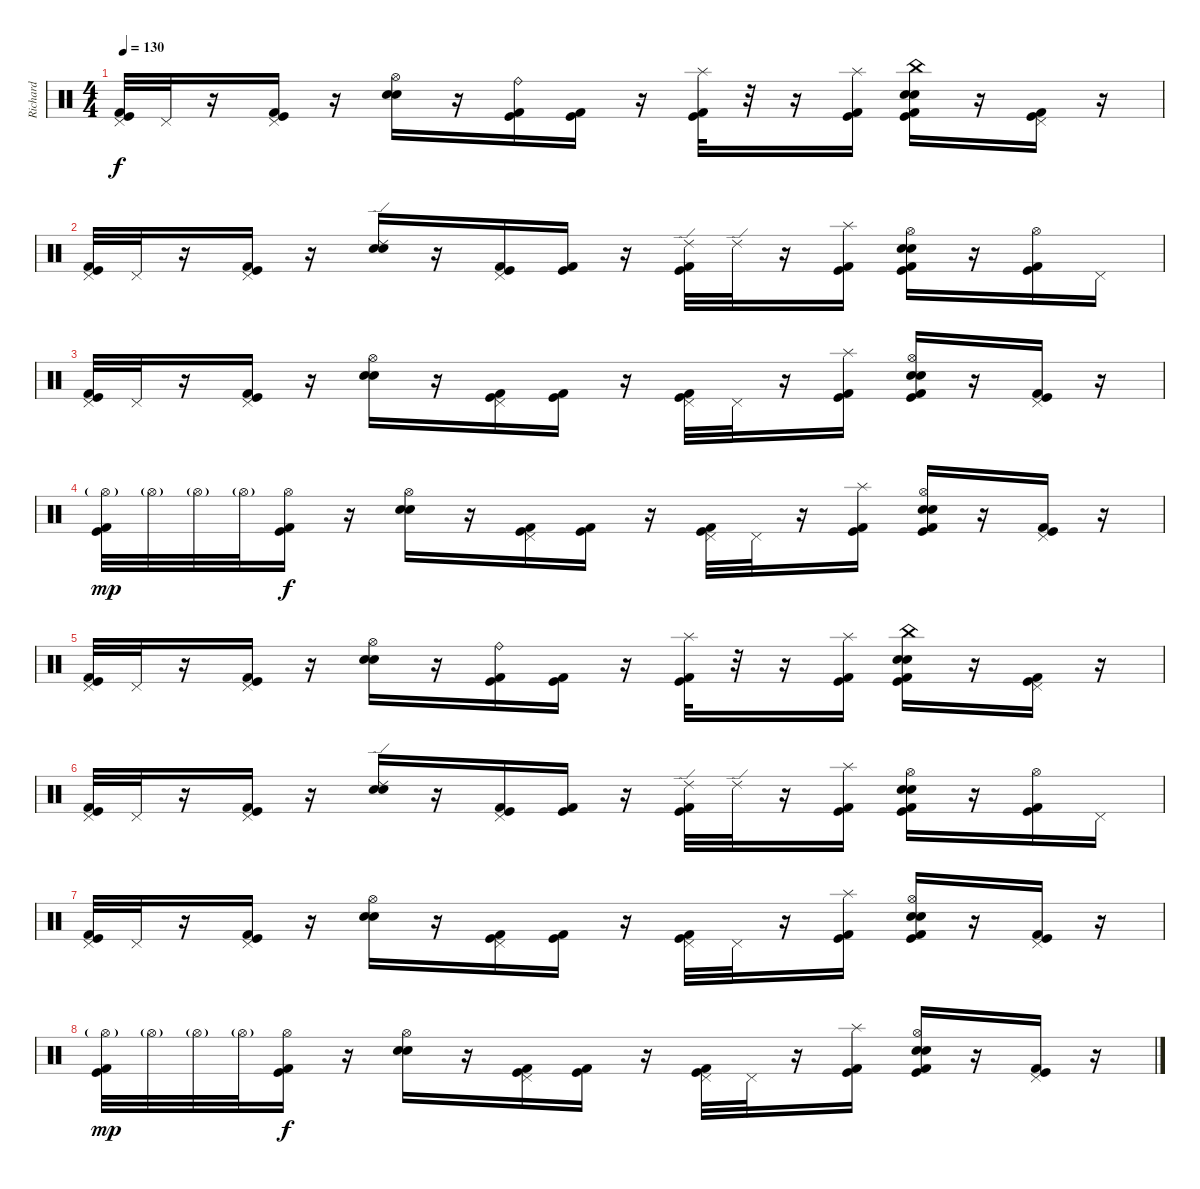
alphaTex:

\track ("Richard" "Richard") {instrument percussion}
\staff {score}
\articulation defaults
\ts (4 4)
\tempo 130
\clef neutral
\ks c
("Pedal Hi-Hat (hit)" "Kick (hit)" "Kick (hit) 2").32{dy f} "Pedal Hi-Hat (hit)".32 r.16 ("Pedal Hi-Hat (hit)" "Kick (hit)" "Kick (hit) 2").16 r.16 ("Hi-Hat (open)" "Snare (hit) 2" "Electric Snare (hit)").16 r.16 ("Ride (bell)" "Kick (hit)" "Kick (hit) 2").16 ("Kick (hit)" "Kick (hit) 2").16 r.16 ("Splash (hit)" "Kick (hit)" "Kick (hit) 2").32 r.32 r.16 ("Splash (hit)" "Kick (hit)" "Kick (hit) 2").16 ("China (hit)" "Snare (hit) 2" "Electric Snare (hit)" "Kick (hit)" "Kick (hit) 2").16 r.16 ("Pedal Hi-Hat (hit)" "Kick (hit)" "Kick (hit) 2").16 r.16 |
("Pedal Hi-Hat (hit)" "Kick (hit)" "Kick (hit) 2").32 "Pedal Hi-Hat (hit)".32 r.16 ("Pedal Hi-Hat (hit)" "Kick (hit)" "Kick (hit) 2").16 r.16 ("Ride (edge) 2" "Snare (hit) 2" "Electric Snare (hit)").16 r.16 ("Pedal Hi-Hat (hit)" "Kick (hit)" "Kick (hit) 2").16 ("Kick (hit)" "Kick (hit) 2").16 r.16 ("Ride (edge) 2" "Kick (hit)" "Kick (hit) 2").32 "Ride (edge) 2".32 r.16 ("Splash (hit)" "Kick (hit)" "Kick (hit) 2").16 ("Hi-Hat (open)" "Snare (hit) 2" "Electric Snare (hit)" "Kick (hit)" "Kick (hit) 2").16 r.16 ("Hi-Hat (open)" "Kick (hit)" "Kick (hit) 2").16 "Pedal Hi-Hat (hit)".16 |
("Pedal Hi-Hat (hit)" "Kick (hit)" "Kick (hit) 2").32 "Pedal Hi-Hat (hit)".32 r.16 ("Pedal Hi-Hat (hit)" "Kick (hit)" "Kick (hit) 2").16 r.16 ("Hi-Hat (open)" "Snare (hit) 2" "Electric Snare (hit)").16 r.16 ("Pedal Hi-Hat (hit)" "Kick (hit)" "Kick (hit) 2").16 ("Kick (hit)" "Kick (hit) 2").16 r.16 ("Pedal Hi-Hat (hit)" "Kick (hit)" "Kick (hit) 2").32 "Pedal Hi-Hat (hit)".32 r.16 ("Splash (hit)" "Kick (hit)" "Kick (hit) 2").16 ("Hi-Hat (open)" "Snare (hit) 2" "Electric Snare (hit)" "Kick (hit)" "Kick (hit) 2").16 r.16 ("Pedal Hi-Hat (hit)" "Kick (hit)" "Kick (hit) 2").16 r.16 |
("Hi-Hat (open)"{g} "Kick (hit)" "Kick (hit) 2").32{dy mp} "Hi-Hat (open)"{g}.32 "Hi-Hat (open)"{g}.32 "Hi-Hat (open)"{g}.32 ("Hi-Hat (open)" "Kick (hit)" "Kick (hit) 2").16{dy f} r.16 ("Hi-Hat (open)" "Snare (hit) 2" "Electric Snare (hit)").16 r.16 ("Pedal Hi-Hat (hit)" "Kick (hit)" "Kick (hit) 2").16 ("Kick (hit)" "Kick (hit) 2").16 r.16 ("Pedal Hi-Hat (hit)" "Kick (hit)" "Kick (hit) 2").32 "Pedal Hi-Hat (hit)".32 r.16 ("Splash (hit)" "Kick (hit)" "Kick (hit) 2").16 ("Hi-Hat (open)" "Snare (hit) 2" "Electric Snare (hit)" "Kick (hit)" "Kick (hit) 2").16 r.16 ("Pedal Hi-Hat (hit)" "Kick (hit)" "Kick (hit) 2").16 r.16 |
("Pedal Hi-Hat (hit)" "Kick (hit)" "Kick (hit) 2").32 "Pedal Hi-Hat (hit)".32 r.16 ("Pedal Hi-Hat (hit)" "Kick (hit)" "Kick (hit) 2").16 r.16 ("Hi-Hat (open)" "Snare (hit) 2" "Electric Snare (hit)").16 r.16 ("Ride (bell)" "Kick (hit)" "Kick (hit) 2").16 ("Kick (hit)" "Kick (hit) 2").16 r.16 ("Splash (hit)" "Kick (hit)" "Kick (hit) 2").32 r.32 r.16 ("Splash (hit)" "Kick (hit)" "Kick (hit) 2").16 ("China (hit)" "Snare (hit) 2" "Electric Snare (hit)" "Kick (hit)" "Kick (hit) 2").16 r.16 ("Pedal Hi-Hat (hit)" "Kick (hit)" "Kick (hit) 2").16 r.16 |
("Pedal Hi-Hat (hit)" "Kick (hit)" "Kick (hit) 2").32 "Pedal Hi-Hat (hit)".32 r.16 ("Pedal Hi-Hat (hit)" "Kick (hit)" "Kick (hit) 2").16 r.16 ("Ride (edge) 2" "Snare (hit) 2" "Electric Snare (hit)").16 r.16 ("Pedal Hi-Hat (hit)" "Kick (hit)" "Kick (hit) 2").16 ("Kick (hit)" "Kick (hit) 2").16 r.16 ("Ride (edge) 2" "Kick (hit)" "Kick (hit) 2").32 "Ride (edge) 2".32 r.16 ("Splash (hit)" "Kick (hit)" "Kick (hit) 2").16 ("Hi-Hat (open)" "Snare (hit) 2" "Electric Snare (hit)" "Kick (hit)" "Kick (hit) 2").16 r.16 ("Hi-Hat (open)" "Kick (hit)" "Kick (hit) 2").16 "Pedal Hi-Hat (hit)".16 |
("Pedal Hi-Hat (hit)" "Kick (hit)" "Kick (hit) 2").32 "Pedal Hi-Hat (hit)".32 r.16 ("Pedal Hi-Hat (hit)" "Kick (hit)" "Kick (hit) 2").16 r.16 ("Hi-Hat (open)" "Snare (hit) 2" "Electric Snare (hit)").16 r.16 ("Pedal Hi-Hat (hit)" "Kick (hit)" "Kick (hit) 2").16 ("Kick (hit)" "Kick (hit) 2").16 r.16 ("Pedal Hi-Hat (hit)" "Kick (hit)" "Kick (hit) 2").32 "Pedal Hi-Hat (hit)".32 r.16 ("Splash (hit)" "Kick (hit)" "Kick (hit) 2").16 ("Hi-Hat (open)" "Snare (hit) 2" "Electric Snare (hit)" "Kick (hit)" "Kick (hit) 2").16 r.16 ("Pedal Hi-Hat (hit)" "Kick (hit)" "Kick (hit) 2").16 r.16 |
("Hi-Hat (open)"{g} "Kick (hit)" "Kick (hit) 2").32{dy mp} "Hi-Hat (open)"{g}.32 "Hi-Hat (open)"{g}.32 "Hi-Hat (open)"{g}.32 ("Hi-Hat (open)" "Kick (hit)" "Kick (hit) 2").16{dy f} r.16 ("Hi-Hat (open)" "Snare (hit) 2" "Electric Snare (hit)").16 r.16 ("Pedal Hi-Hat (hit)" "Kick (hit)" "Kick (hit) 2").16 ("Kick (hit)" "Kick (hit) 2").16 r.16 ("Pedal Hi-Hat (hit)" "Kick (hit)" "Kick (hit) 2").32 "Pedal Hi-Hat (hit)".32 r.16 ("Splash (hit)" "Kick (hit)" "Kick (hit) 2").16 ("Hi-Hat (open)" "Snare (hit) 2" "Electric Snare (hit)" "Kick (hit)" "Kick (hit) 2").16 r.16 ("Pedal Hi-Hat (hit)" "Kick (hit)" "Kick (hit) 2").16 r.16
